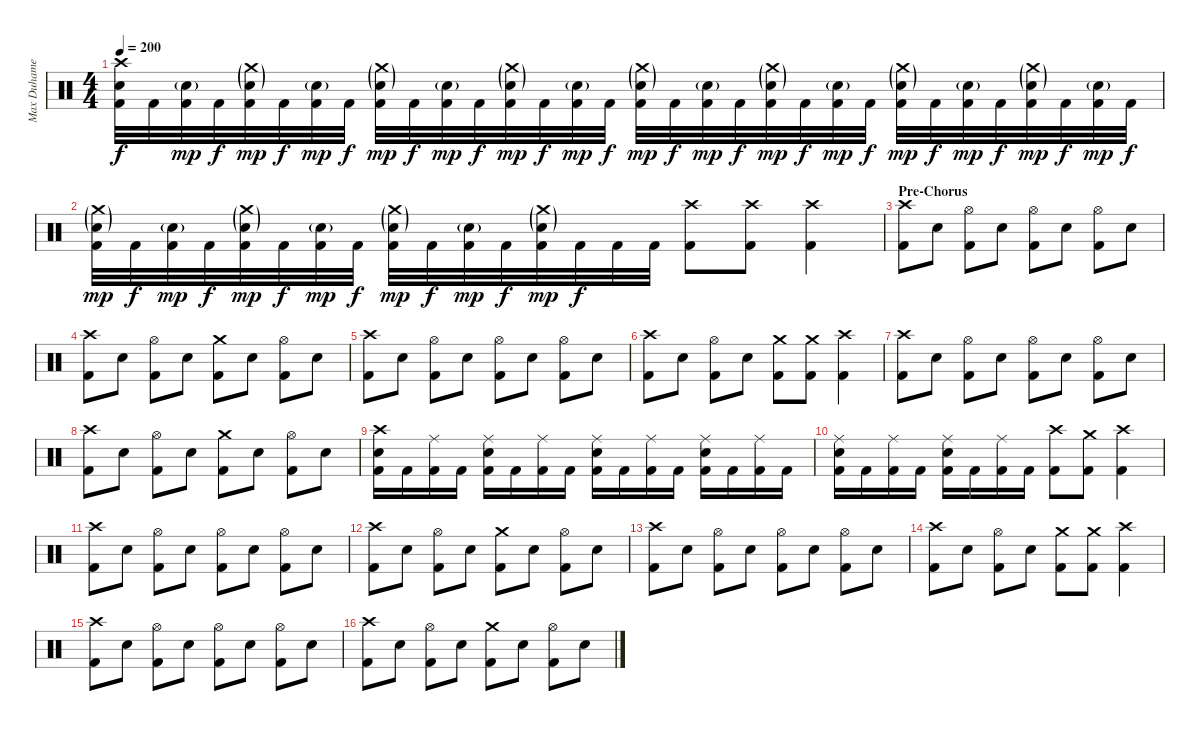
\track ("Max Duhamel" "Max Duhame") {instrument percussion}
\staff {score}
\articulation defaults
\ts (4 4)
\tempo 200
\clef neutral
\ks c
("Crash high (hit)" "Electric Snare (hit)" "Kick (hit) 2").32{dy f} "Kick (hit) 2".32 ("Electric Snare (hit)"{g} "Kick (hit) 2").32{dy mp} "Kick (hit) 2".32{dy f} ("Crash medium (hit)"{g} "Electric Snare (hit)"{g} "Kick (hit) 2").32{dy mp} "Kick (hit) 2".32{dy f} ("Electric Snare (hit)"{g} "Kick (hit) 2").32{dy mp} "Kick (hit) 2".32{dy f} ("Crash medium (hit)"{g} "Electric Snare (hit)"{g} "Kick (hit) 2").32{dy mp} "Kick (hit) 2".32{dy f} ("Electric Snare (hit)"{g} "Kick (hit) 2").32{dy mp} "Kick (hit) 2".32{dy f} ("Crash medium (hit)"{g} "Electric Snare (hit)"{g} "Kick (hit) 2").32{dy mp} "Kick (hit) 2".32{dy f} ("Electric Snare (hit)"{g} "Kick (hit) 2").32{dy mp} "Kick (hit) 2".32{dy f} ("Crash medium (hit)"{g} "Electric Snare (hit)"{g} "Kick (hit) 2").32{dy mp} "Kick (hit) 2".32{dy f} ("Electric Snare (hit)"{g} "Kick (hit) 2").32{dy mp} "Kick (hit) 2".32{dy f} ("Crash medium (hit)"{g} "Electric Snare (hit)"{g} "Kick (hit) 2").32{dy mp} "Kick (hit) 2".32{dy f} ("Electric Snare (hit)"{g} "Kick (hit) 2").32{dy mp} "Kick (hit) 2".32{dy f} ("Crash medium (hit)"{g} "Electric Snare (hit)"{g} "Kick (hit) 2").32{dy mp} "Kick (hit) 2".32{dy f} ("Electric Snare (hit)"{g} "Kick (hit) 2").32{dy mp} "Kick (hit) 2".32{dy f} ("Crash medium (hit)"{g} "Electric Snare (hit)"{g} "Kick (hit) 2").32{dy mp} "Kick (hit) 2".32{dy f} ("Electric Snare (hit)"{g} "Kick (hit) 2").32{dy mp} "Kick (hit) 2".32{dy f} |
("Crash medium (hit)"{g} "Electric Snare (hit)"{g} "Kick (hit) 2").32{dy mp} "Kick (hit) 2".32{dy f} ("Electric Snare (hit)"{g} "Kick (hit) 2").32{dy mp} "Kick (hit) 2".32{dy f} ("Crash medium (hit)"{g} "Electric Snare (hit)"{g} "Kick (hit) 2").32{dy mp} "Kick (hit) 2".32{dy f} ("Electric Snare (hit)"{g} "Kick (hit) 2").32{dy mp} "Kick (hit) 2".32{dy f} ("Crash medium (hit)"{g} "Electric Snare (hit)"{g} "Kick (hit) 2").32{dy mp} "Kick (hit) 2".32{dy f} ("Electric Snare (hit)"{g} "Kick (hit) 2").32{dy mp} "Kick (hit) 2".32{dy f} ("Crash medium (hit)"{g} "Electric Snare (hit)"{g} "Kick (hit) 2").32{dy mp} "Kick (hit) 2".32{dy f} "Kick (hit) 2".32 "Kick (hit) 2".32 ("Crash high (hit)" "Kick (hit) 2").8 ("Crash high (hit)" "Kick (hit) 2").8 ("Crash high (hit)" "Kick (hit) 2").4 |
\section ("" "Pre-Chorus")
("Crash high (hit)" "Kick (hit) 2").8 "Electric Snare (hit)".8 ("Hi-Hat (open)" "Kick (hit) 2").8 "Electric Snare (hit)".8 ("Hi-Hat (open)" "Kick (hit) 2").8 "Electric Snare (hit)".8 ("Hi-Hat (open)" "Kick (hit) 2").8 "Electric Snare (hit)".8 |
("Crash high (hit)" "Kick (hit) 2").8 "Electric Snare (hit)".8 ("Hi-Hat (open)" "Kick (hit) 2").8 "Electric Snare (hit)".8 ("Crash medium (hit)" "Kick (hit) 2").8 "Electric Snare (hit)".8 ("Hi-Hat (open)" "Kick (hit) 2").8 "Electric Snare (hit)".8 |
("Crash high (hit)" "Kick (hit) 2").8 "Electric Snare (hit)".8 ("Hi-Hat (open)" "Kick (hit) 2").8 "Electric Snare (hit)".8 ("Hi-Hat (open)" "Kick (hit) 2").8 "Electric Snare (hit)".8 ("Hi-Hat (open)" "Kick (hit) 2").8 "Electric Snare (hit)".8 |
("Crash high (hit)" "Kick (hit) 2").8 "Electric Snare (hit)".8 ("Hi-Hat (open)" "Kick (hit) 2").8 "Electric Snare (hit)".8 ("Crash medium (hit)" "Kick (hit) 2").8 ("Crash medium (hit)" "Kick (hit) 2").8 ("Crash high (hit)" "Kick (hit) 2").4 |
("Crash high (hit)" "Kick (hit) 2").8 "Electric Snare (hit)".8 ("Hi-Hat (open)" "Kick (hit) 2").8 "Electric Snare (hit)".8 ("Hi-Hat (open)" "Kick (hit) 2").8 "Electric Snare (hit)".8 ("Hi-Hat (open)" "Kick (hit) 2").8 "Electric Snare (hit)".8 |
("Crash high (hit)" "Kick (hit) 2").8 "Electric Snare (hit)".8 ("Hi-Hat (open)" "Kick (hit) 2").8 "Electric Snare (hit)".8 ("Crash medium (hit)" "Kick (hit) 2").8 "Electric Snare (hit)".8 ("Hi-Hat (open)" "Kick (hit) 2").8 "Electric Snare (hit)".8 |
("Crash high (hit)" "Electric Snare (hit)" "Kick (hit) 2").16 "Kick (hit) 2".16 ("Ride (middle)" "Kick (hit) 2").16 "Kick (hit) 2".16 ("Ride (middle)" "Electric Snare (hit)" "Kick (hit) 2").16 "Kick (hit) 2".16 ("Ride (middle)" "Kick (hit) 2").16 "Kick (hit) 2".16 ("Ride (middle)" "Electric Snare (hit)" "Kick (hit) 2").16 "Kick (hit) 2".16 ("Ride (middle)" "Kick (hit) 2").16 "Kick (hit) 2".16 ("Ride (middle)" "Electric Snare (hit)" "Kick (hit) 2").16 "Kick (hit) 2".16 ("Ride (middle)" "Kick (hit) 2").16 "Kick (hit) 2".16 |
("Ride (middle)" "Electric Snare (hit)" "Kick (hit) 2").16 "Kick (hit) 2".16 ("Ride (middle)" "Kick (hit) 2").16 "Kick (hit) 2".16 ("Ride (middle)" "Electric Snare (hit)" "Kick (hit) 2").16 "Kick (hit) 2".16 ("Ride (middle)" "Kick (hit) 2").16 "Kick (hit) 2".16 ("Crash high (hit)" "Kick (hit) 2").8 ("Crash medium (hit)" "Kick (hit) 2").8 ("Crash high (hit)" "Kick (hit) 2").4 |
\section ("" "")
("Crash high (hit)" "Kick (hit) 2").8 "Electric Snare (hit)".8 ("Hi-Hat (open)" "Kick (hit) 2").8 "Electric Snare (hit)".8 ("Hi-Hat (open)" "Kick (hit) 2").8 "Electric Snare (hit)".8 ("Hi-Hat (open)" "Kick (hit) 2").8 "Electric Snare (hit)".8 |
("Crash high (hit)" "Kick (hit) 2").8 "Electric Snare (hit)".8 ("Hi-Hat (open)" "Kick (hit) 2").8 "Electric Snare (hit)".8 ("Crash medium (hit)" "Kick (hit) 2").8 "Electric Snare (hit)".8 ("Hi-Hat (open)" "Kick (hit) 2").8 "Electric Snare (hit)".8 |
("Crash high (hit)" "Kick (hit) 2").8 "Electric Snare (hit)".8 ("Hi-Hat (open)" "Kick (hit) 2").8 "Electric Snare (hit)".8 ("Hi-Hat (open)" "Kick (hit) 2").8 "Electric Snare (hit)".8 ("Hi-Hat (open)" "Kick (hit) 2").8 "Electric Snare (hit)".8 |
("Crash high (hit)" "Kick (hit) 2").8 "Electric Snare (hit)".8 ("Hi-Hat (open)" "Kick (hit) 2").8 "Electric Snare (hit)".8 ("Crash medium (hit)" "Kick (hit) 2").8 ("Crash medium (hit)" "Kick (hit) 2").8 ("Crash high (hit)" "Kick (hit) 2").4 |
("Crash high (hit)" "Kick (hit) 2").8 "Electric Snare (hit)".8 ("Hi-Hat (open)" "Kick (hit) 2").8 "Electric Snare (hit)".8 ("Hi-Hat (open)" "Kick (hit) 2").8 "Electric Snare (hit)".8 ("Hi-Hat (open)" "Kick (hit) 2").8 "Electric Snare (hit)".8 |
("Crash high (hit)" "Kick (hit) 2").8 "Electric Snare (hit)".8 ("Hi-Hat (open)" "Kick (hit) 2").8 "Electric Snare (hit)".8 ("Crash medium (hit)" "Kick (hit) 2").8 "Electric Snare (hit)".8 ("Hi-Hat (open)" "Kick (hit) 2").8 "Electric Snare (hit)".8
